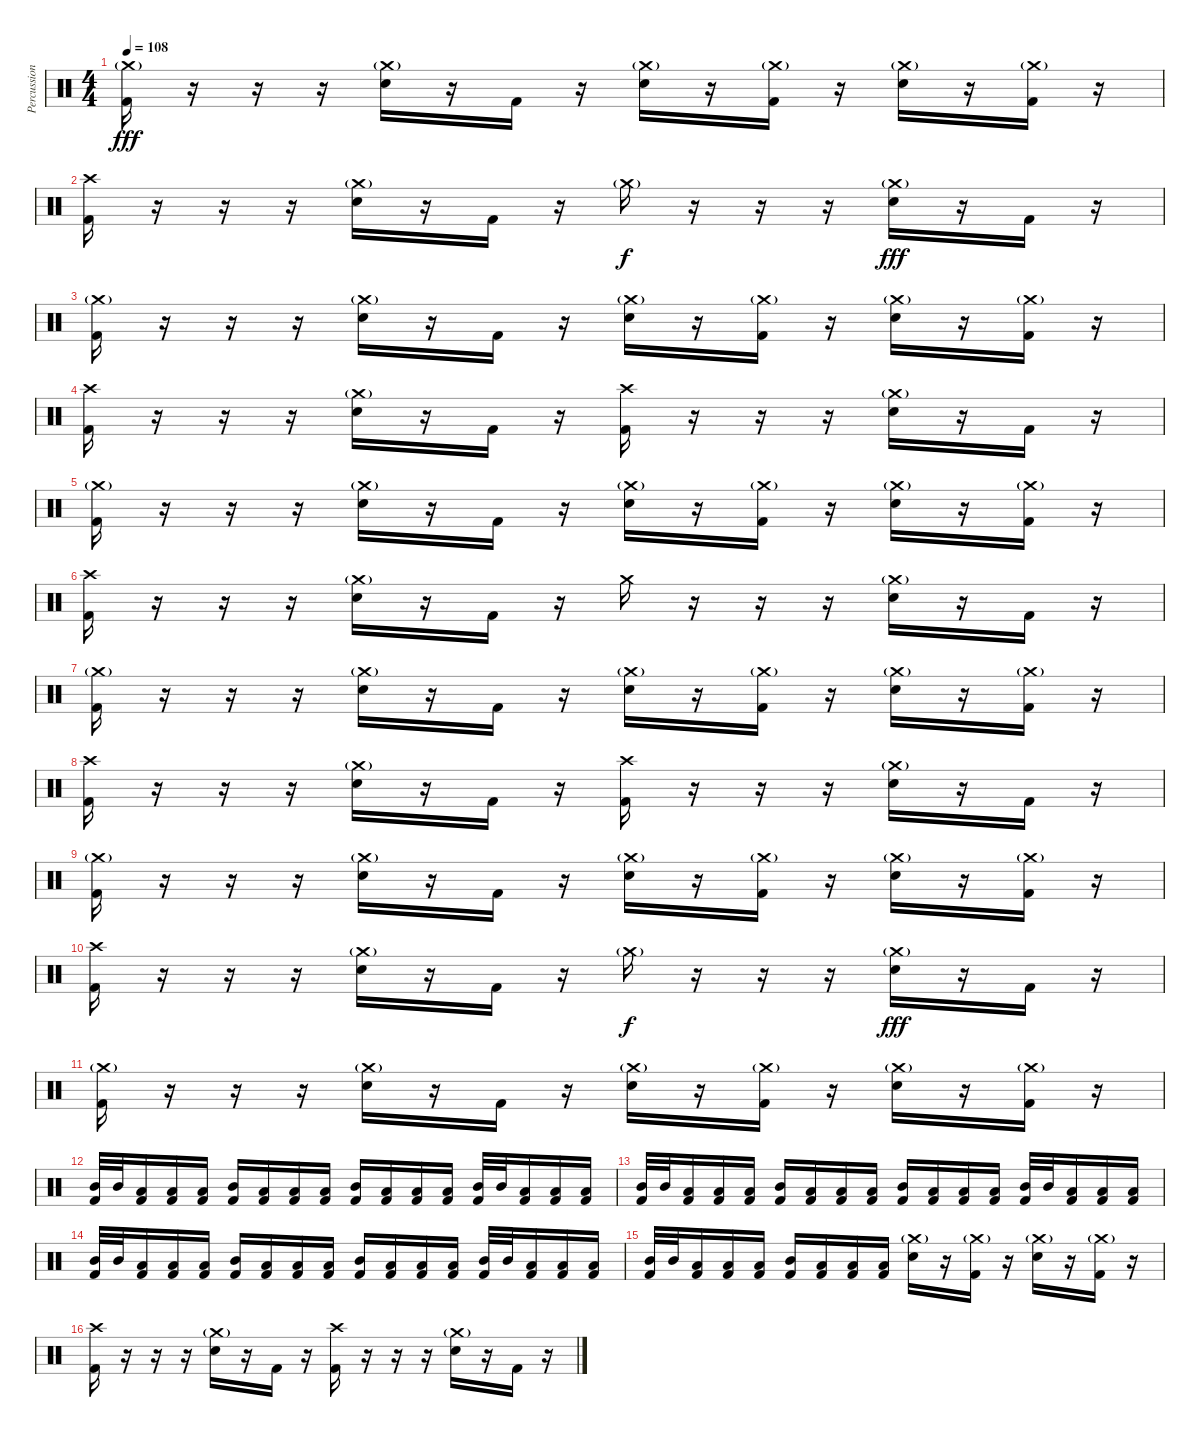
\track ("Percussion" "Percussion") {instrument percussion}
\staff {score}
\articulation defaults
\ts (4 4)
\tempo 108
\clef neutral
\ks c
("Crash medium (hit)"{g} "Kick (hit) 2").16{dy fff} r.16 r.16 r.16 ("Crash medium (hit)"{g} "Electric Snare (hit)").16 r.16 "Kick (hit) 2".16 r.16 ("Crash medium (hit)"{g} "Electric Snare (hit)").16 r.16 ("Crash medium (hit)"{g} "Kick (hit) 2").16 r.16 ("Crash medium (hit)"{g} "Electric Snare (hit)").16 r.16 ("Crash medium (hit)"{g} "Kick (hit) 2").16 r.16 |
("Crash high (hit)" "Kick (hit) 2").16 r.16 r.16 r.16 ("Crash medium (hit)"{g} "Electric Snare (hit)").16 r.16 "Kick (hit) 2".16 r.16 "Crash medium (hit)"{g}.16{dy f} r.16 r.16 r.16 ("Crash medium (hit)"{g} "Electric Snare (hit)").16{dy fff} r.16 "Kick (hit) 2".16 r.16 |
("Crash medium (hit)"{g} "Kick (hit) 2").16 r.16 r.16 r.16 ("Crash medium (hit)"{g} "Electric Snare (hit)").16 r.16 "Kick (hit) 2".16 r.16 ("Crash medium (hit)"{g} "Electric Snare (hit)").16 r.16 ("Crash medium (hit)"{g} "Kick (hit) 2").16 r.16 ("Crash medium (hit)"{g} "Electric Snare (hit)").16 r.16 ("Crash medium (hit)"{g} "Kick (hit) 2").16 r.16 |
("Crash high (hit)" "Kick (hit) 2").16 r.16 r.16 r.16 ("Crash medium (hit)"{g} "Electric Snare (hit)").16 r.16 "Kick (hit) 2".16 r.16 ("Crash high (hit)" "Kick (hit) 2").16 r.16 r.16 r.16 ("Crash medium (hit)"{g} "Electric Snare (hit)").16 r.16 "Kick (hit) 2".16 r.16 |
("Crash medium (hit)"{g} "Kick (hit) 2").16 r.16 r.16 r.16 ("Crash medium (hit)"{g} "Electric Snare (hit)").16 r.16 "Kick (hit) 2".16 r.16 ("Crash medium (hit)"{g} "Electric Snare (hit)").16 r.16 ("Crash medium (hit)"{g} "Kick (hit) 2").16 r.16 ("Crash medium (hit)"{g} "Electric Snare (hit)").16 r.16 ("Crash medium (hit)"{g} "Kick (hit) 2").16 r.16 |
("Crash high (hit)" "Kick (hit) 2").16 r.16 r.16 r.16 ("Crash medium (hit)"{g} "Electric Snare (hit)").16 r.16 "Kick (hit) 2".16 r.16 "Crash medium (hit)".16 r.16 r.16 r.16 ("Crash medium (hit)"{g} "Electric Snare (hit)").16 r.16 "Kick (hit) 2".16 r.16 |
("Crash medium (hit)"{g} "Kick (hit) 2").16 r.16 r.16 r.16 ("Crash medium (hit)"{g} "Electric Snare (hit)").16 r.16 "Kick (hit) 2".16 r.16 ("Crash medium (hit)"{g} "Electric Snare (hit)").16 r.16 ("Crash medium (hit)"{g} "Kick (hit) 2").16 r.16 ("Crash medium (hit)"{g} "Electric Snare (hit)").16 r.16 ("Crash medium (hit)"{g} "Kick (hit) 2").16 r.16 |
("Crash high (hit)" "Kick (hit) 2").16 r.16 r.16 r.16 ("Crash medium (hit)"{g} "Electric Snare (hit)").16 r.16 "Kick (hit) 2".16 r.16 ("Crash high (hit)" "Kick (hit) 2").16 r.16 r.16 r.16 ("Crash medium (hit)"{g} "Electric Snare (hit)").16 r.16 "Kick (hit) 2".16 r.16 |
("Crash medium (hit)"{g} "Kick (hit) 2").16 r.16 r.16 r.16 ("Crash medium (hit)"{g} "Electric Snare (hit)").16 r.16 "Kick (hit) 2".16 r.16 ("Crash medium (hit)"{g} "Electric Snare (hit)").16 r.16 ("Crash medium (hit)"{g} "Kick (hit) 2").16 r.16 ("Crash medium (hit)"{g} "Electric Snare (hit)").16 r.16 ("Crash medium (hit)"{g} "Kick (hit) 2").16 r.16 |
("Crash high (hit)" "Kick (hit) 2").16 r.16 r.16 r.16 ("Crash medium (hit)"{g} "Electric Snare (hit)").16 r.16 "Kick (hit) 2".16 r.16 "Crash medium (hit)"{g}.16{dy f} r.16 r.16 r.16 ("Crash medium (hit)"{g} "Electric Snare (hit)").16{dy fff} r.16 "Kick (hit) 2".16 r.16 |
("Crash medium (hit)"{g} "Kick (hit) 2").16 r.16 r.16 r.16 ("Crash medium (hit)"{g} "Electric Snare (hit)").16 r.16 "Kick (hit) 2".16 r.16 ("Crash medium (hit)"{g} "Electric Snare (hit)").16 r.16 ("Crash medium (hit)"{g} "Kick (hit) 2").16 r.16 ("Crash medium (hit)"{g} "Electric Snare (hit)").16 r.16 ("Crash medium (hit)"{g} "Kick (hit) 2").16 r.16 |
("Mid Tom (hit)" "Kick (hit) 2").32 "Mid Tom (hit)".32 ("Low Tom (hit)" "Kick (hit) 2").16 ("Low Floor Tom (hit)" "Kick (hit) 2").16 ("Low Floor Tom (hit)" "Kick (hit) 2").16 ("Mid Tom (hit)" "Kick (hit) 2").16 ("Low Tom (hit)" "Kick (hit) 2").16 ("Low Floor Tom (hit)" "Kick (hit) 2").16 ("Low Floor Tom (hit)" "Kick (hit) 2").16 ("Mid Tom (hit)" "Kick (hit) 2").16 ("Low Tom (hit)" "Kick (hit) 2").16 ("Low Floor Tom (hit)" "Kick (hit) 2").16 ("Low Floor Tom (hit)" "Kick (hit) 2").16 ("Mid Tom (hit)" "Kick (hit) 2").32 "Mid Tom (hit)".32 ("Low Tom (hit)" "Kick (hit) 2").16 ("Low Floor Tom (hit)" "Kick (hit) 2").16 ("Low Floor Tom (hit)" "Kick (hit) 2").16 |
("Mid Tom (hit)" "Kick (hit) 2").32 "Mid Tom (hit)".32 ("Low Tom (hit)" "Kick (hit) 2").16 ("Low Floor Tom (hit)" "Kick (hit) 2").16 ("Low Floor Tom (hit)" "Kick (hit) 2").16 ("Mid Tom (hit)" "Kick (hit) 2").16 ("Low Tom (hit)" "Kick (hit) 2").16 ("Low Floor Tom (hit)" "Kick (hit) 2").16 ("Low Floor Tom (hit)" "Kick (hit) 2").16 ("Mid Tom (hit)" "Kick (hit) 2").16 ("Low Tom (hit)" "Kick (hit) 2").16 ("Low Floor Tom (hit)" "Kick (hit) 2").16 ("Low Floor Tom (hit)" "Kick (hit) 2").16 ("Mid Tom (hit)" "Kick (hit) 2").32 "Mid Tom (hit)".32 ("Low Tom (hit)" "Kick (hit) 2").16 ("Low Floor Tom (hit)" "Kick (hit) 2").16 ("Low Floor Tom (hit)" "Kick (hit) 2").16 |
("Mid Tom (hit)" "Kick (hit) 2").32 "Mid Tom (hit)".32 ("Low Tom (hit)" "Kick (hit) 2").16 ("Low Floor Tom (hit)" "Kick (hit) 2").16 ("Low Floor Tom (hit)" "Kick (hit) 2").16 ("Mid Tom (hit)" "Kick (hit) 2").16 ("Low Tom (hit)" "Kick (hit) 2").16 ("Low Floor Tom (hit)" "Kick (hit) 2").16 ("Low Floor Tom (hit)" "Kick (hit) 2").16 ("Mid Tom (hit)" "Kick (hit) 2").16 ("Low Tom (hit)" "Kick (hit) 2").16 ("Low Floor Tom (hit)" "Kick (hit) 2").16 ("Low Floor Tom (hit)" "Kick (hit) 2").16 ("Mid Tom (hit)" "Kick (hit) 2").32 "Mid Tom (hit)".32 ("Low Tom (hit)" "Kick (hit) 2").16 ("Low Floor Tom (hit)" "Kick (hit) 2").16 ("Low Floor Tom (hit)" "Kick (hit) 2").16 |
("Mid Tom (hit)" "Kick (hit) 2").32 "Mid Tom (hit)".32 ("Low Tom (hit)" "Kick (hit) 2").16 ("Low Floor Tom (hit)" "Kick (hit) 2").16 ("Low Floor Tom (hit)" "Kick (hit) 2").16 ("Mid Tom (hit)" "Kick (hit) 2").16 ("Low Tom (hit)" "Kick (hit) 2").16 ("Low Floor Tom (hit)" "Kick (hit) 2").16 ("Low Floor Tom (hit)" "Kick (hit) 2").16 ("Crash medium (hit)"{g} "Electric Snare (hit)").16 r.16 ("Crash medium (hit)"{g} "Kick (hit) 2").16 r.16 ("Crash medium (hit)"{g} "Electric Snare (hit)").16 r.16 ("Crash medium (hit)"{g} "Kick (hit) 2").16 r.16 |
("Crash high (hit)" "Kick (hit) 2").16 r.16 r.16 r.16 ("Crash medium (hit)"{g} "Electric Snare (hit)").16 r.16 "Kick (hit) 2".16 r.16 ("Crash high (hit)" "Kick (hit) 2").16 r.16 r.16 r.16 ("Crash medium (hit)"{g} "Electric Snare (hit)").16 r.16 "Kick (hit) 2".16 r.16
